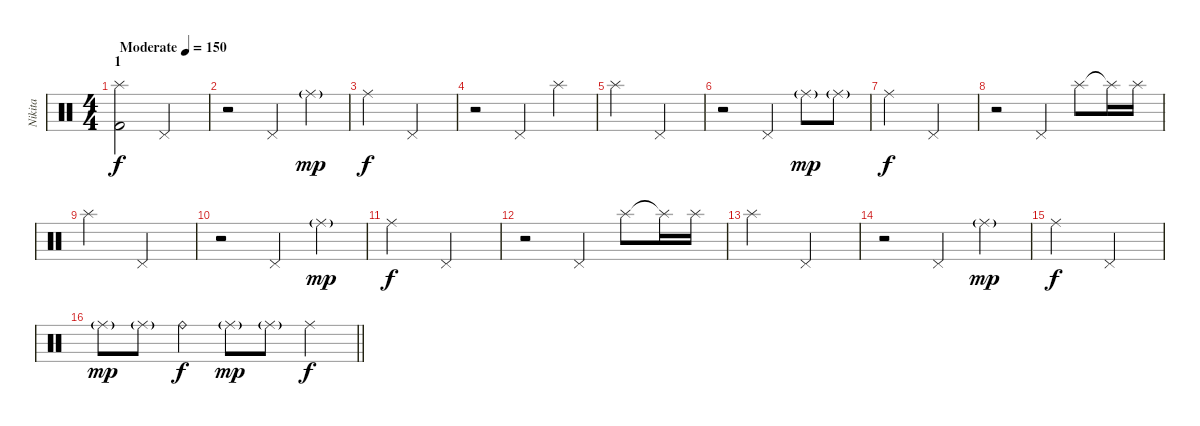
\track ("Nikita" "Nikita") {instrument percussion}
\staff {score}
\articulation defaults
\ts (4 4)
\section ("" "1")
\tempo (150 "Moderate")
\clef neutral
\ks c
("Splash (hit)" "Kick (hit) 2").2{dy f} "Pedal Hi-Hat (hit)".2 |
r.2 "Pedal Hi-Hat (hit)".4 "Ride (middle)"{g}.4{dy mp} |
"Ride (middle)".2{dy f} "Pedal Hi-Hat (hit)".2 |
r.2 "Pedal Hi-Hat (hit)".4 "Splash (hit)".4 |
"Splash (hit)".2 "Pedal Hi-Hat (hit)".2 |
r.2 "Pedal Hi-Hat (hit)".4 "Ride (middle)"{g}.8{dy mp} "Ride (middle)"{g}.8 |
"Ride (middle)".2{dy f} "Pedal Hi-Hat (hit)".2 |
r.2 "Pedal Hi-Hat (hit)".4 "Splash (hit)".8 "Splash (hit)"{t}.16 "Splash (hit)".16 |
"Splash (hit)".2 "Pedal Hi-Hat (hit)".2 |
r.2 "Pedal Hi-Hat (hit)".4 "Ride (middle)"{g}.4{dy mp} |
"Ride (middle)".2{dy f} "Pedal Hi-Hat (hit)".2 |
r.2 "Pedal Hi-Hat (hit)".4 "Splash (hit)".8 "Splash (hit)"{t}.16 "Splash (hit)".16 |
"Splash (hit)".2 "Pedal Hi-Hat (hit)".2 |
r.2 "Pedal Hi-Hat (hit)".4 "Ride (middle)"{g}.4{dy mp} |
"Ride (middle)".2{dy f} "Pedal Hi-Hat (hit)".2 |
\barLineRight lightlight "Ride (middle)"{g}.8{dy mp} "Ride (middle)"{g}.8 "Ride (bell)".4{dy f} "Ride (middle)"{g}.8{dy mp} "Ride (middle)"{g}.8 "Ride (middle)".4{dy f}
